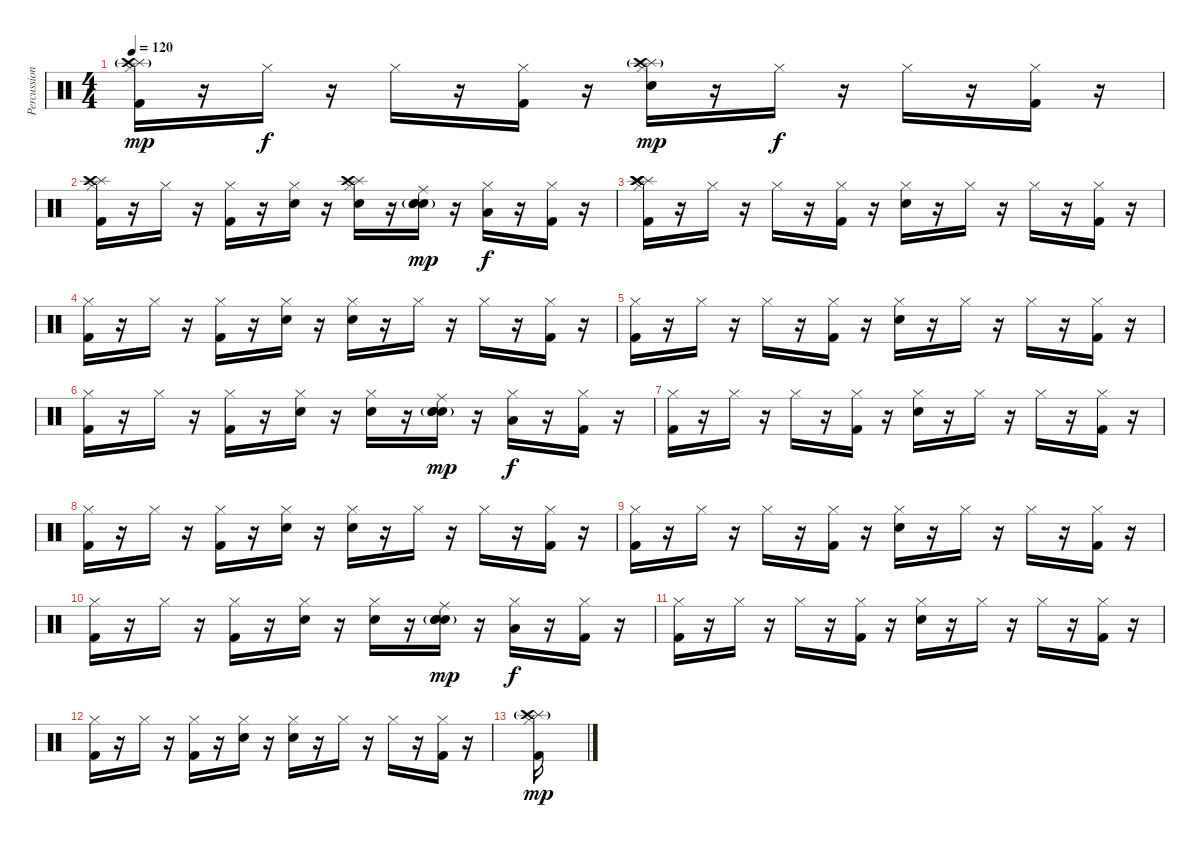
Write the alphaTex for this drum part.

\track ("Percussion" "Percussion") {instrument percussion}
\staff {score}
\articulation defaults
\ts (4 4)
\tempo 120
\clef neutral
\ks c
("Hi-Hat (closed)" "Splash (hit)"{g} "Crash high (hit)" "Kick (hit) 2").16{dy mp} r.16 "Hi-Hat (closed)".16{dy f} r.16 "Hi-Hat (closed)".16 r.16 ("Hi-Hat (closed)" "Kick (hit) 2").16 r.16 ("Hi-Hat (closed)" "Splash (hit)"{g} "Crash high (hit)" "Snare (hit) 2").16{dy mp} r.16 "Hi-Hat (closed)".16{dy f} r.16 "Hi-Hat (closed)".16 r.16 ("Hi-Hat (closed)" "Kick (hit) 2").16 r.16 |
("Hi-Hat (closed)" "Splash (hit)" "Crash high (hit)" "Kick (hit) 2").16 r.16 "Hi-Hat (closed)".16 r.16 ("Hi-Hat (closed)" "Kick (hit) 2").16 r.16 ("Hi-Hat (closed)" "Snare (hit)").16 r.16 ("Hi-Hat (closed)" "Splash (hit)" "Crash high (hit)" "Snare (hit) 2").16 r.16 ("Ride (middle)" "Snare (hit)"{g} "Electric Snare (hit)"{g} "Snare (hit) 2").16{dy mp} r.16 ("Hi-Hat (closed)" "Low Floor Tom (hit)").16{dy f} r.16 ("Hi-Hat (closed)" "Kick (hit) 2").16 r.16 |
("Hi-Hat (closed)" "Splash (hit)" "Crash high (hit)" "Crash high (hit)" "Kick (hit) 2").16 r.16 "Hi-Hat (closed)".16 r.16 "Hi-Hat (closed)".16 r.16 ("Hi-Hat (closed)" "Kick (hit) 2").16 r.16 ("Hi-Hat (closed)" "Snare (hit) 2").16 r.16 "Hi-Hat (closed)".16 r.16 "Hi-Hat (closed)".16 r.16 ("Hi-Hat (closed)" "Kick (hit) 2").16 r.16 |
("Hi-Hat (closed)" "Kick (hit) 2").16 r.16 "Hi-Hat (closed)".16 r.16 ("Hi-Hat (closed)" "Kick (hit) 2").16 r.16 ("Hi-Hat (closed)" "Snare (hit)").16 r.16 ("Hi-Hat (closed)" "Snare (hit) 2").16 r.16 "Hi-Hat (closed)".16 r.16 "Hi-Hat (closed)".16 r.16 ("Hi-Hat (closed)" "Kick (hit) 2").16 r.16 |
("Hi-Hat (closed)" "Kick (hit) 2").16 r.16 "Hi-Hat (closed)".16 r.16 "Hi-Hat (closed)".16 r.16 ("Hi-Hat (closed)" "Kick (hit) 2").16 r.16 ("Hi-Hat (closed)" "Snare (hit) 2").16 r.16 "Hi-Hat (closed)".16 r.16 "Hi-Hat (closed)".16 r.16 ("Hi-Hat (closed)" "Kick (hit) 2").16 r.16 |
("Hi-Hat (closed)" "Kick (hit) 2").16 r.16 "Hi-Hat (closed)".16 r.16 ("Hi-Hat (closed)" "Kick (hit) 2").16 r.16 ("Hi-Hat (closed)" "Snare (hit)").16 r.16 ("Hi-Hat (closed)" "Snare (hit) 2").16 r.16 ("Ride (middle)" "Snare (hit)"{g} "Electric Snare (hit)"{g} "Snare (hit) 2"{g}).16{dy mp} r.16 ("Hi-Hat (closed)" "Low Floor Tom (hit)").16{dy f} r.16 ("Hi-Hat (closed)" "Kick (hit) 2").16 r.16 |
("Hi-Hat (closed)" "Kick (hit) 2").16 r.16 "Hi-Hat (closed)".16 r.16 "Hi-Hat (closed)".16 r.16 ("Hi-Hat (closed)" "Kick (hit) 2").16 r.16 ("Hi-Hat (closed)" "Snare (hit) 2").16 r.16 "Hi-Hat (closed)".16 r.16 "Hi-Hat (closed)".16 r.16 ("Hi-Hat (closed)" "Kick (hit) 2").16 r.16 |
("Hi-Hat (closed)" "Kick (hit) 2").16 r.16 "Hi-Hat (closed)".16 r.16 ("Hi-Hat (closed)" "Kick (hit) 2").16 r.16 ("Hi-Hat (closed)" "Snare (hit)").16 r.16 ("Hi-Hat (closed)" "Snare (hit) 2").16 r.16 "Hi-Hat (closed)".16 r.16 "Hi-Hat (closed)".16 r.16 ("Hi-Hat (closed)" "Kick (hit) 2").16 r.16 |
("Hi-Hat (closed)" "Kick (hit) 2").16 r.16 "Hi-Hat (closed)".16 r.16 "Hi-Hat (closed)".16 r.16 ("Hi-Hat (closed)" "Kick (hit) 2").16 r.16 ("Hi-Hat (closed)" "Snare (hit) 2").16 r.16 "Hi-Hat (closed)".16 r.16 "Hi-Hat (closed)".16 r.16 ("Hi-Hat (closed)" "Kick (hit) 2").16 r.16 |
("Hi-Hat (closed)" "Kick (hit) 2").16 r.16 "Hi-Hat (closed)".16 r.16 ("Hi-Hat (closed)" "Kick (hit) 2").16 r.16 ("Hi-Hat (closed)" "Snare (hit)").16 r.16 ("Hi-Hat (closed)" "Snare (hit) 2").16 r.16 ("Ride (middle)" "Snare (hit)"{g} "Electric Snare (hit)"{g} "Snare (hit) 2"{g}).16{dy mp} r.16 ("Hi-Hat (closed)" "Low Floor Tom (hit)").16{dy f} r.16 ("Hi-Hat (closed)" "Kick (hit) 2").16 r.16 |
("Hi-Hat (closed)" "Kick (hit) 2").16 r.16 "Hi-Hat (closed)".16 r.16 "Hi-Hat (closed)".16 r.16 ("Hi-Hat (closed)" "Kick (hit) 2").16 r.16 ("Hi-Hat (closed)" "Snare (hit) 2").16 r.16 "Hi-Hat (closed)".16 r.16 "Hi-Hat (closed)".16 r.16 ("Hi-Hat (closed)" "Kick (hit) 2").16 r.16 |
("Hi-Hat (closed)" "Kick (hit) 2").16 r.16 "Hi-Hat (closed)".16 r.16 ("Hi-Hat (closed)" "Kick (hit) 2").16 r.16 ("Hi-Hat (closed)" "Snare (hit)").16 r.16 ("Hi-Hat (closed)" "Snare (hit) 2").16 r.16 "Hi-Hat (closed)".16 r.16 "Hi-Hat (closed)".16 r.16 ("Hi-Hat (closed)" "Kick (hit) 2").16 r.16 |
("Hi-Hat (closed)" "Splash (hit)"{g} "Crash high (hit)"{g} "Kick (hit) 2").16{dy mp}
